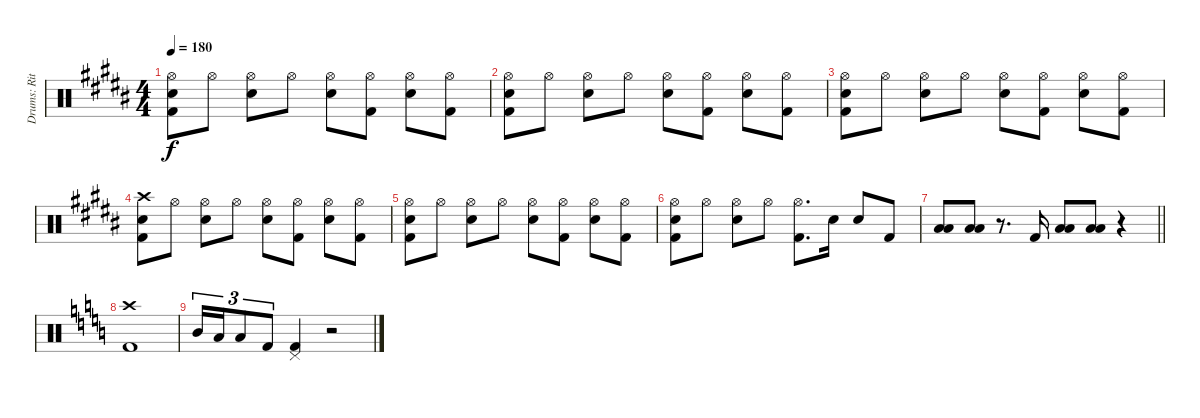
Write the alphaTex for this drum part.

\track ("Drums: Ritsu " "Drums: Rit") {instrument percussion}
\staff {score}
\articulation defaults
\ts (4 4)
\tempo 180
\clef neutral
\ks b
("Hi-Hat (open)" "Electric Snare (hit)" "Kick (hit) 2").8{dy f} "Hi-Hat (open)".8 ("Hi-Hat (open)" "Electric Snare (hit)").8 "Hi-Hat (open)".8 ("Hi-Hat (open)" "Electric Snare (hit)").8 ("Hi-Hat (open)" "Kick (hit) 2").8 ("Hi-Hat (open)" "Electric Snare (hit)").8 ("Hi-Hat (open)" "Kick (hit) 2").8 |
("Hi-Hat (open)" "Electric Snare (hit)" "Kick (hit) 2").8 "Hi-Hat (open)".8 ("Hi-Hat (open)" "Electric Snare (hit)").8 "Hi-Hat (open)".8 ("Hi-Hat (open)" "Electric Snare (hit)").8 ("Hi-Hat (open)" "Kick (hit) 2").8 ("Hi-Hat (open)" "Electric Snare (hit)").8 ("Hi-Hat (open)" "Kick (hit) 2").8 |
("Hi-Hat (open)" "Electric Snare (hit)" "Kick (hit) 2").8 "Hi-Hat (open)".8 ("Hi-Hat (open)" "Electric Snare (hit)").8 "Hi-Hat (open)".8 ("Hi-Hat (open)" "Electric Snare (hit)").8 ("Hi-Hat (open)" "Kick (hit) 2").8 ("Hi-Hat (open)" "Electric Snare (hit)").8 ("Hi-Hat (open)" "Kick (hit) 2").8 |
("Crash high (hit)" "Electric Snare (hit)" "Kick (hit) 2").8 "Hi-Hat (open)".8 ("Hi-Hat (open)" "Electric Snare (hit)").8 "Hi-Hat (open)".8 ("Hi-Hat (open)" "Electric Snare (hit)").8 ("Hi-Hat (open)" "Kick (hit) 2").8 ("Hi-Hat (open)" "Electric Snare (hit)").8 ("Hi-Hat (open)" "Kick (hit) 2").8 |
("Hi-Hat (open)" "Electric Snare (hit)" "Kick (hit) 2").8 "Hi-Hat (open)".8 ("Hi-Hat (open)" "Electric Snare (hit)").8 "Hi-Hat (open)".8 ("Hi-Hat (open)" "Electric Snare (hit)").8 ("Hi-Hat (open)" "Kick (hit) 2").8 ("Hi-Hat (open)" "Electric Snare (hit)").8 ("Hi-Hat (open)" "Kick (hit) 2").8 |
("Hi-Hat (open)" "Electric Snare (hit)" "Kick (hit) 2").8 "Hi-Hat (open)".8 ("Hi-Hat (open)" "Electric Snare (hit)").8 "Hi-Hat (open)".8 ("Hi-Hat (open)" "Kick (hit) 2").8{d} "Electric Snare (hit)".16 "Electric Snare (hit)".8 "Kick (hit) 2".8 |
\barLineRight lightlight
("Low Tom (hit)" "Low Floor Tom (hit)").8 ("Low Tom (hit)" "Low Floor Tom (hit)").8 r.8{d} "Kick (hit) 2".16 ("Low Tom (hit)" "Low Floor Tom (hit)").8 ("Low Tom (hit)" "Low Floor Tom (hit)").8 r.4 |
\ks c
("Crash high (hit)" "Kick (hit) 2").1 |
"Mid Tom (hit)".16{tu (3 2)} "Low Tom (hit)".16{tu (3 2)} "Low Floor Tom (hit)".8{tu (3 2)} "Kick (hit) 2".8{tu (3 2)} ("Pedal Hi-Hat (hit)" "Kick (hit) 2").4 r.2
